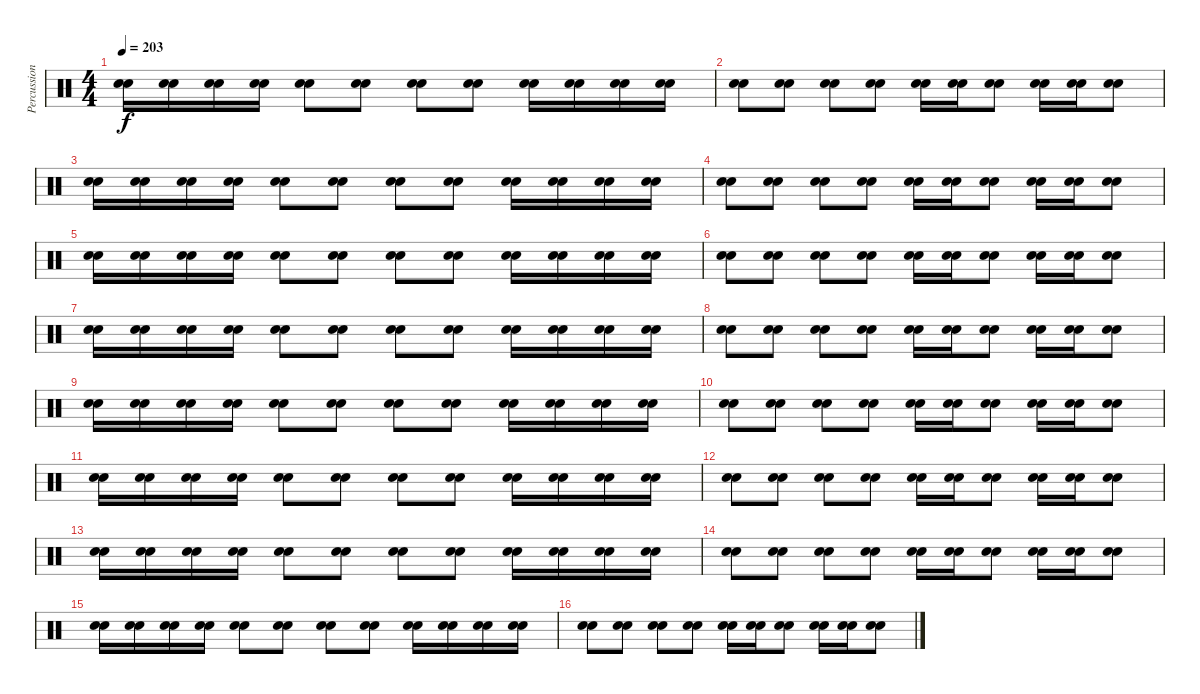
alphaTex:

\track ("Percussion" "Percussion") {instrument percussion}
\staff {score}
\articulation defaults
\ts (4 4)
\tempo 203
\clef neutral
\ks c
("Snare (hit) 2" "Snare (hit) 2").16{dy f} ("Snare (hit) 2" "Snare (hit) 2").16 ("Snare (hit) 2" "Snare (hit) 2").16 ("Snare (hit) 2" "Snare (hit) 2").16 ("Snare (hit) 2" "Snare (hit) 2").8 ("Snare (hit) 2" "Snare (hit) 2").8 ("Snare (hit) 2" "Snare (hit) 2").8 ("Snare (hit) 2" "Snare (hit) 2").8 ("Snare (hit) 2" "Snare (hit) 2").16 ("Snare (hit) 2" "Snare (hit) 2").16 ("Snare (hit) 2" "Snare (hit) 2").16 ("Snare (hit) 2" "Snare (hit) 2").16 |
("Snare (hit) 2" "Snare (hit) 2").8 ("Snare (hit) 2" "Snare (hit) 2").8 ("Snare (hit) 2" "Snare (hit) 2").8 ("Snare (hit) 2" "Snare (hit) 2").8 ("Snare (hit) 2" "Snare (hit) 2").16 ("Snare (hit) 2" "Snare (hit) 2").16 ("Snare (hit) 2" "Snare (hit) 2").8 ("Snare (hit) 2" "Snare (hit) 2").16 ("Snare (hit) 2" "Snare (hit) 2").16 ("Snare (hit) 2" "Snare (hit) 2").8 |
("Snare (hit) 2" "Snare (hit) 2").16 ("Snare (hit) 2" "Snare (hit) 2").16 ("Snare (hit) 2" "Snare (hit) 2").16 ("Snare (hit) 2" "Snare (hit) 2").16 ("Snare (hit) 2" "Snare (hit) 2").8 ("Snare (hit) 2" "Snare (hit) 2").8 ("Snare (hit) 2" "Snare (hit) 2").8 ("Snare (hit) 2" "Snare (hit) 2").8 ("Snare (hit) 2" "Snare (hit) 2").16 ("Snare (hit) 2" "Snare (hit) 2").16 ("Snare (hit) 2" "Snare (hit) 2").16 ("Snare (hit) 2" "Snare (hit) 2").16 |
("Snare (hit) 2" "Snare (hit) 2").8 ("Snare (hit) 2" "Snare (hit) 2").8 ("Snare (hit) 2" "Snare (hit) 2").8 ("Snare (hit) 2" "Snare (hit) 2").8 ("Snare (hit) 2" "Snare (hit) 2").16 ("Snare (hit) 2" "Snare (hit) 2").16 ("Snare (hit) 2" "Snare (hit) 2").8 ("Snare (hit) 2" "Snare (hit) 2").16 ("Snare (hit) 2" "Snare (hit) 2").16 ("Snare (hit) 2" "Snare (hit) 2").8 |
("Snare (hit) 2" "Snare (hit) 2").16 ("Snare (hit) 2" "Snare (hit) 2").16 ("Snare (hit) 2" "Snare (hit) 2").16 ("Snare (hit) 2" "Snare (hit) 2").16 ("Snare (hit) 2" "Snare (hit) 2").8 ("Snare (hit) 2" "Snare (hit) 2").8 ("Snare (hit) 2" "Snare (hit) 2").8 ("Snare (hit) 2" "Snare (hit) 2").8 ("Snare (hit) 2" "Snare (hit) 2").16 ("Snare (hit) 2" "Snare (hit) 2").16 ("Snare (hit) 2" "Snare (hit) 2").16 ("Snare (hit) 2" "Snare (hit) 2").16 |
("Snare (hit) 2" "Snare (hit) 2").8 ("Snare (hit) 2" "Snare (hit) 2").8 ("Snare (hit) 2" "Snare (hit) 2").8 ("Snare (hit) 2" "Snare (hit) 2").8 ("Snare (hit) 2" "Snare (hit) 2").16 ("Snare (hit) 2" "Snare (hit) 2").16 ("Snare (hit) 2" "Snare (hit) 2").8 ("Snare (hit) 2" "Snare (hit) 2").16 ("Snare (hit) 2" "Snare (hit) 2").16 ("Snare (hit) 2" "Snare (hit) 2").8 |
("Snare (hit) 2" "Snare (hit) 2").16 ("Snare (hit) 2" "Snare (hit) 2").16 ("Snare (hit) 2" "Snare (hit) 2").16 ("Snare (hit) 2" "Snare (hit) 2").16 ("Snare (hit) 2" "Snare (hit) 2").8 ("Snare (hit) 2" "Snare (hit) 2").8 ("Snare (hit) 2" "Snare (hit) 2").8 ("Snare (hit) 2" "Snare (hit) 2").8 ("Snare (hit) 2" "Snare (hit) 2").16 ("Snare (hit) 2" "Snare (hit) 2").16 ("Snare (hit) 2" "Snare (hit) 2").16 ("Snare (hit) 2" "Snare (hit) 2").16 |
("Snare (hit) 2" "Snare (hit) 2").8 ("Snare (hit) 2" "Snare (hit) 2").8 ("Snare (hit) 2" "Snare (hit) 2").8 ("Snare (hit) 2" "Snare (hit) 2").8 ("Snare (hit) 2" "Snare (hit) 2").16 ("Snare (hit) 2" "Snare (hit) 2").16 ("Snare (hit) 2" "Snare (hit) 2").8 ("Snare (hit) 2" "Snare (hit) 2").16 ("Snare (hit) 2" "Snare (hit) 2").16 ("Snare (hit) 2" "Snare (hit) 2").8 |
("Snare (hit) 2" "Snare (hit) 2").16 ("Snare (hit) 2" "Snare (hit) 2").16 ("Snare (hit) 2" "Snare (hit) 2").16 ("Snare (hit) 2" "Snare (hit) 2").16 ("Snare (hit) 2" "Snare (hit) 2").8 ("Snare (hit) 2" "Snare (hit) 2").8 ("Snare (hit) 2" "Snare (hit) 2").8 ("Snare (hit) 2" "Snare (hit) 2").8 ("Snare (hit) 2" "Snare (hit) 2").16 ("Snare (hit) 2" "Snare (hit) 2").16 ("Snare (hit) 2" "Snare (hit) 2").16 ("Snare (hit) 2" "Snare (hit) 2").16 |
("Snare (hit) 2" "Snare (hit) 2").8 ("Snare (hit) 2" "Snare (hit) 2").8 ("Snare (hit) 2" "Snare (hit) 2").8 ("Snare (hit) 2" "Snare (hit) 2").8 ("Snare (hit) 2" "Snare (hit) 2").16 ("Snare (hit) 2" "Snare (hit) 2").16 ("Snare (hit) 2" "Snare (hit) 2").8 ("Snare (hit) 2" "Snare (hit) 2").16 ("Snare (hit) 2" "Snare (hit) 2").16 ("Snare (hit) 2" "Snare (hit) 2").8 |
("Snare (hit) 2" "Snare (hit) 2").16 ("Snare (hit) 2" "Snare (hit) 2").16 ("Snare (hit) 2" "Snare (hit) 2").16 ("Snare (hit) 2" "Snare (hit) 2").16 ("Snare (hit) 2" "Snare (hit) 2").8 ("Snare (hit) 2" "Snare (hit) 2").8 ("Snare (hit) 2" "Snare (hit) 2").8 ("Snare (hit) 2" "Snare (hit) 2").8 ("Snare (hit) 2" "Snare (hit) 2").16 ("Snare (hit) 2" "Snare (hit) 2").16 ("Snare (hit) 2" "Snare (hit) 2").16 ("Snare (hit) 2" "Snare (hit) 2").16 |
("Snare (hit) 2" "Snare (hit) 2").8 ("Snare (hit) 2" "Snare (hit) 2").8 ("Snare (hit) 2" "Snare (hit) 2").8 ("Snare (hit) 2" "Snare (hit) 2").8 ("Snare (hit) 2" "Snare (hit) 2").16 ("Snare (hit) 2" "Snare (hit) 2").16 ("Snare (hit) 2" "Snare (hit) 2").8 ("Snare (hit) 2" "Snare (hit) 2").16 ("Snare (hit) 2" "Snare (hit) 2").16 ("Snare (hit) 2" "Snare (hit) 2").8 |
("Snare (hit) 2" "Snare (hit) 2").16 ("Snare (hit) 2" "Snare (hit) 2").16 ("Snare (hit) 2" "Snare (hit) 2").16 ("Snare (hit) 2" "Snare (hit) 2").16 ("Snare (hit) 2" "Snare (hit) 2").8 ("Snare (hit) 2" "Snare (hit) 2").8 ("Snare (hit) 2" "Snare (hit) 2").8 ("Snare (hit) 2" "Snare (hit) 2").8 ("Snare (hit) 2" "Snare (hit) 2").16 ("Snare (hit) 2" "Snare (hit) 2").16 ("Snare (hit) 2" "Snare (hit) 2").16 ("Snare (hit) 2" "Snare (hit) 2").16 |
("Snare (hit) 2" "Snare (hit) 2").8 ("Snare (hit) 2" "Snare (hit) 2").8 ("Snare (hit) 2" "Snare (hit) 2").8 ("Snare (hit) 2" "Snare (hit) 2").8 ("Snare (hit) 2" "Snare (hit) 2").16 ("Snare (hit) 2" "Snare (hit) 2").16 ("Snare (hit) 2" "Snare (hit) 2").8 ("Snare (hit) 2" "Snare (hit) 2").16 ("Snare (hit) 2" "Snare (hit) 2").16 ("Snare (hit) 2" "Snare (hit) 2").8 |
("Snare (hit) 2" "Snare (hit) 2").16 ("Snare (hit) 2" "Snare (hit) 2").16 ("Snare (hit) 2" "Snare (hit) 2").16 ("Snare (hit) 2" "Snare (hit) 2").16 ("Snare (hit) 2" "Snare (hit) 2").8 ("Snare (hit) 2" "Snare (hit) 2").8 ("Snare (hit) 2" "Snare (hit) 2").8 ("Snare (hit) 2" "Snare (hit) 2").8 ("Snare (hit) 2" "Snare (hit) 2").16 ("Snare (hit) 2" "Snare (hit) 2").16 ("Snare (hit) 2" "Snare (hit) 2").16 ("Snare (hit) 2" "Snare (hit) 2").16 |
("Snare (hit) 2" "Snare (hit) 2").8 ("Snare (hit) 2" "Snare (hit) 2").8 ("Snare (hit) 2" "Snare (hit) 2").8 ("Snare (hit) 2" "Snare (hit) 2").8 ("Snare (hit) 2" "Snare (hit) 2").16 ("Snare (hit) 2" "Snare (hit) 2").16 ("Snare (hit) 2" "Snare (hit) 2").8 ("Snare (hit) 2" "Snare (hit) 2").16 ("Snare (hit) 2" "Snare (hit) 2").16 ("Snare (hit) 2" "Snare (hit) 2").8
